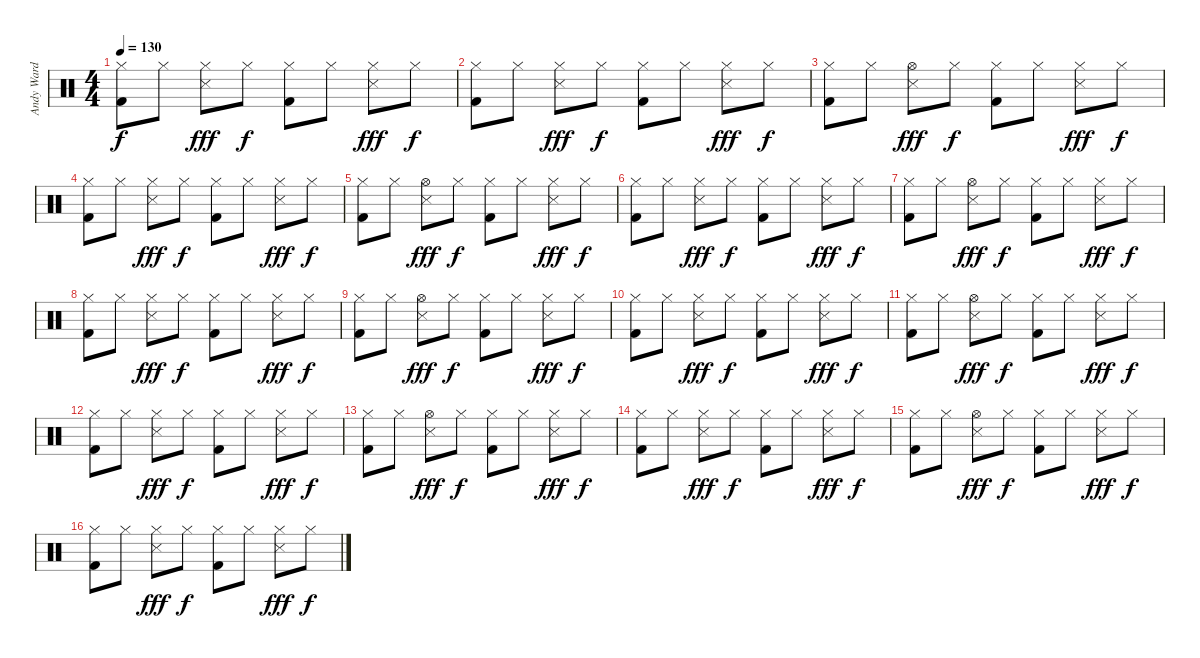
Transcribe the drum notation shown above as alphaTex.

\track ("Andy Ward" "Andy Ward") {instrument percussion}
\staff {score}
\articulation defaults
\ts (4 4)
\tempo 130
\clef neutral
\ks c
("Hi-Hat (closed)" "Kick (hit) 2").8{dy f} "Hi-Hat (closed)".8 ("Hi-Hat (closed)" "Snare (side stick) 3").8{dy fff} "Hi-Hat (closed)".8{dy f} ("Hi-Hat (closed)" "Kick (hit) 2").8 "Hi-Hat (closed)".8 ("Hi-Hat (closed)" "Snare (side stick) 3").8{dy fff} "Hi-Hat (closed)".8{dy f} |
("Hi-Hat (closed)" "Kick (hit) 2").8 "Hi-Hat (closed)".8 ("Hi-Hat (closed)" "Snare (side stick) 3").8{dy fff} "Hi-Hat (closed)".8{dy f} ("Hi-Hat (closed)" "Kick (hit) 2").8 "Hi-Hat (closed)".8 ("Hi-Hat (closed)" "Snare (side stick) 3").8{dy fff} "Hi-Hat (closed)".8{dy f} |
("Hi-Hat (closed)" "Kick (hit) 2").8 "Hi-Hat (closed)".8 ("Hi-Hat (open)" "Snare (side stick) 3").8{dy fff} "Hi-Hat (closed)".8{dy f} ("Hi-Hat (closed)" "Kick (hit) 2").8 "Hi-Hat (closed)".8 ("Hi-Hat (closed)" "Snare (side stick) 3").8{dy fff} "Hi-Hat (closed)".8{dy f} |
("Hi-Hat (closed)" "Kick (hit) 2").8 "Hi-Hat (closed)".8 ("Hi-Hat (closed)" "Snare (side stick) 3").8{dy fff} "Hi-Hat (closed)".8{dy f} ("Hi-Hat (closed)" "Kick (hit) 2").8 "Hi-Hat (closed)".8 ("Hi-Hat (closed)" "Snare (side stick) 3").8{dy fff} "Hi-Hat (closed)".8{dy f} |
("Hi-Hat (closed)" "Kick (hit) 2").8 "Hi-Hat (closed)".8 ("Hi-Hat (open)" "Snare (side stick) 3").8{dy fff} "Hi-Hat (closed)".8{dy f} ("Hi-Hat (closed)" "Kick (hit) 2").8 "Hi-Hat (closed)".8 ("Hi-Hat (closed)" "Snare (side stick) 3").8{dy fff} "Hi-Hat (closed)".8{dy f} |
("Hi-Hat (closed)" "Kick (hit) 2").8 "Hi-Hat (closed)".8 ("Hi-Hat (closed)" "Snare (side stick) 3").8{dy fff} "Hi-Hat (closed)".8{dy f} ("Hi-Hat (closed)" "Kick (hit) 2").8 "Hi-Hat (closed)".8 ("Hi-Hat (closed)" "Snare (side stick) 3").8{dy fff} "Hi-Hat (closed)".8{dy f} |
("Hi-Hat (closed)" "Kick (hit) 2").8 "Hi-Hat (closed)".8 ("Hi-Hat (open)" "Snare (side stick) 3").8{dy fff} "Hi-Hat (closed)".8{dy f} ("Hi-Hat (closed)" "Kick (hit) 2").8 "Hi-Hat (closed)".8 ("Hi-Hat (closed)" "Snare (side stick) 3").8{dy fff} "Hi-Hat (closed)".8{dy f} |
("Hi-Hat (closed)" "Kick (hit) 2").8 "Hi-Hat (closed)".8 ("Hi-Hat (closed)" "Snare (side stick) 3").8{dy fff} "Hi-Hat (closed)".8{dy f} ("Hi-Hat (closed)" "Kick (hit) 2").8 "Hi-Hat (closed)".8 ("Hi-Hat (closed)" "Snare (side stick) 3").8{dy fff} "Hi-Hat (closed)".8{dy f} |
("Hi-Hat (closed)" "Kick (hit) 2").8 "Hi-Hat (closed)".8 ("Hi-Hat (open)" "Snare (side stick) 3").8{dy fff} "Hi-Hat (closed)".8{dy f} ("Hi-Hat (closed)" "Kick (hit) 2").8 "Hi-Hat (closed)".8 ("Hi-Hat (closed)" "Snare (side stick) 3").8{dy fff} "Hi-Hat (closed)".8{dy f} |
("Hi-Hat (closed)" "Kick (hit) 2").8 "Hi-Hat (closed)".8 ("Hi-Hat (closed)" "Snare (side stick) 3").8{dy fff} "Hi-Hat (closed)".8{dy f} ("Hi-Hat (closed)" "Kick (hit) 2").8 "Hi-Hat (closed)".8 ("Hi-Hat (closed)" "Snare (side stick) 3").8{dy fff} "Hi-Hat (closed)".8{dy f} |
("Hi-Hat (closed)" "Kick (hit) 2").8 "Hi-Hat (closed)".8 ("Hi-Hat (open)" "Snare (side stick) 3").8{dy fff} "Hi-Hat (closed)".8{dy f} ("Hi-Hat (closed)" "Kick (hit) 2").8 "Hi-Hat (closed)".8 ("Hi-Hat (closed)" "Snare (side stick) 3").8{dy fff} "Hi-Hat (closed)".8{dy f} |
("Hi-Hat (closed)" "Kick (hit) 2").8 "Hi-Hat (closed)".8 ("Hi-Hat (closed)" "Snare (side stick) 3").8{dy fff} "Hi-Hat (closed)".8{dy f} ("Hi-Hat (closed)" "Kick (hit) 2").8 "Hi-Hat (closed)".8 ("Hi-Hat (closed)" "Snare (side stick) 3").8{dy fff} "Hi-Hat (closed)".8{dy f} |
("Hi-Hat (closed)" "Kick (hit) 2").8 "Hi-Hat (closed)".8 ("Hi-Hat (open)" "Snare (side stick) 3").8{dy fff} "Hi-Hat (closed)".8{dy f} ("Hi-Hat (closed)" "Kick (hit) 2").8 "Hi-Hat (closed)".8 ("Hi-Hat (closed)" "Snare (side stick) 3").8{dy fff} "Hi-Hat (closed)".8{dy f} |
("Hi-Hat (closed)" "Kick (hit) 2").8 "Hi-Hat (closed)".8 ("Hi-Hat (closed)" "Snare (side stick) 3").8{dy fff} "Hi-Hat (closed)".8{dy f} ("Hi-Hat (closed)" "Kick (hit) 2").8 "Hi-Hat (closed)".8 ("Hi-Hat (closed)" "Snare (side stick) 3").8{dy fff} "Hi-Hat (closed)".8{dy f} |
("Hi-Hat (closed)" "Kick (hit) 2").8 "Hi-Hat (closed)".8 ("Hi-Hat (open)" "Snare (side stick) 3").8{dy fff} "Hi-Hat (closed)".8{dy f} ("Hi-Hat (closed)" "Kick (hit) 2").8 "Hi-Hat (closed)".8 ("Hi-Hat (closed)" "Snare (side stick) 3").8{dy fff} "Hi-Hat (closed)".8{dy f} |
("Hi-Hat (closed)" "Kick (hit) 2").8 "Hi-Hat (closed)".8 ("Hi-Hat (closed)" "Snare (side stick) 3").8{dy fff} "Hi-Hat (closed)".8{dy f} ("Hi-Hat (closed)" "Kick (hit) 2").8 "Hi-Hat (closed)".8 ("Hi-Hat (closed)" "Snare (side stick) 3").8{dy fff} "Hi-Hat (closed)".8{dy f}
